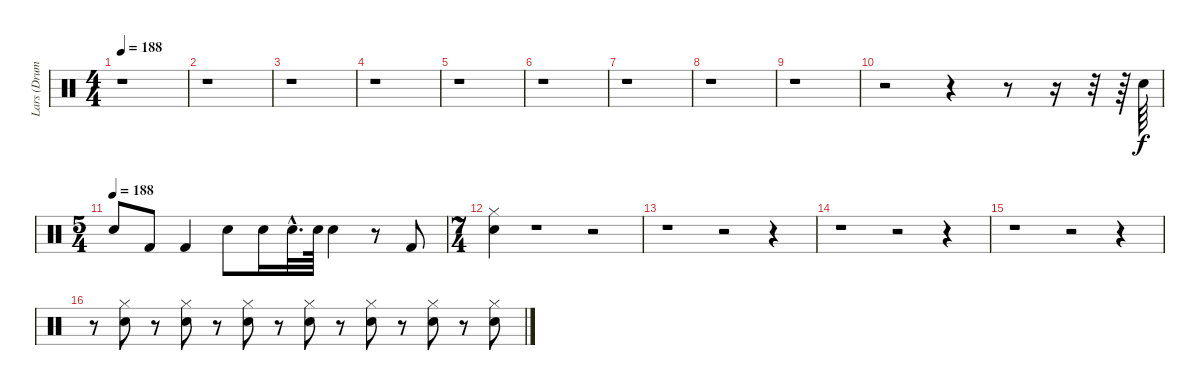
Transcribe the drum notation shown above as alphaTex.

\track ("Lars (Drums)" "Lars (Drum") {instrument percussion}
\staff {score}
\articulation defaults
\ts (4 4)
\tempo 188
\tempo 72
\tempo 188
\clef neutral
\ks c
r.1{dy f} |
r.1 |
r.1 |
r.1 |
r.1 |
r.1 |
r.1 |
r.1 |
r.1 |
r.2 r.4 r.8 r.16 r.32 r.64 "Snare (hit) 2".64 |
\ts (5 4)
\tempo (188)
"Snare (hit) 2".8 "Kick (hit) 2".8 "Kick (hit) 2".4 "Snare (hit) 2".8 "Snare (hit) 2".16 "Snare (hit) 2"{hac}.32{d} "Snare (hit) 2".64 "Snare (hit) 2".4 r.8 "Kick (hit) 2".8 |
\ts (7 4)
("Snare (hit) 2" "Hi-Hat (closed)").4 r.1 r.2 |
r.1 r.2 r.4 |
r.1 r.2 r.4 |
r.1 r.2 r.4 |
r.8 ("Snare (hit) 2" "Hi-Hat (closed)").8 r.8 ("Snare (hit) 2" "Hi-Hat (closed)").8 r.8 ("Snare (hit) 2" "Hi-Hat (closed)").8 r.8 ("Snare (hit) 2" "Hi-Hat (closed)").8 r.8 ("Snare (hit) 2" "Hi-Hat (closed)").8 r.8 ("Snare (hit) 2" "Hi-Hat (closed)").8 r.8 ("Snare (hit) 2" "Hi-Hat (closed)").8
